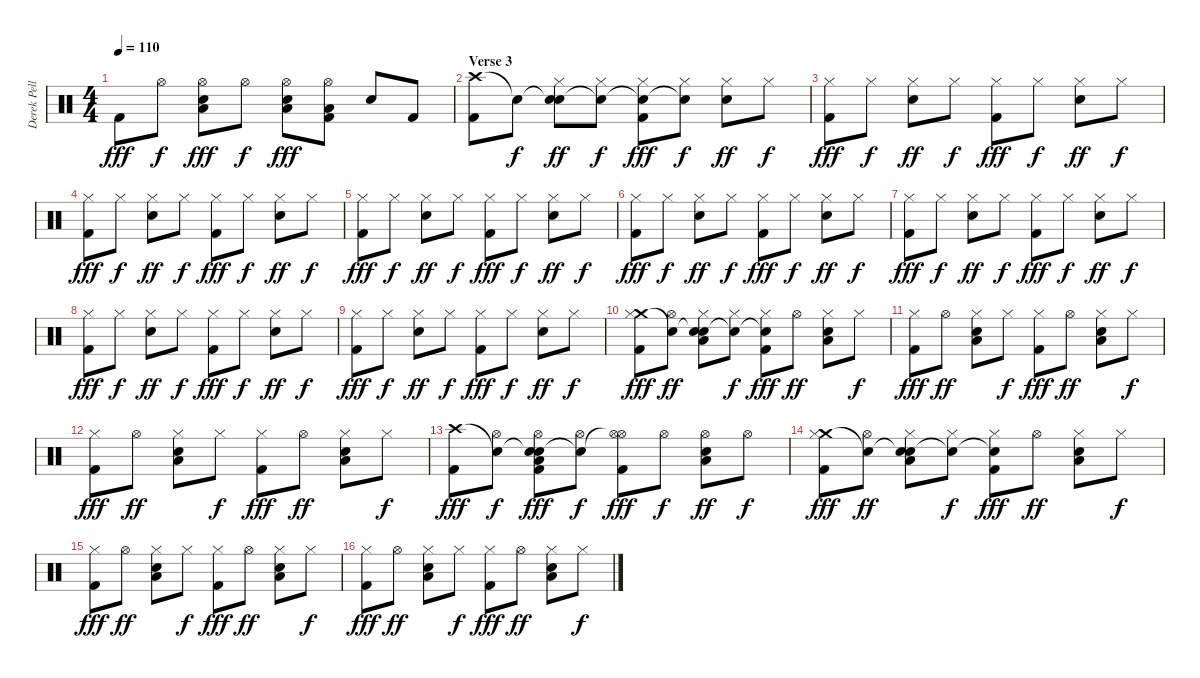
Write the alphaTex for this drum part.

\track ("Derek Pellici" "Derek Pell") {instrument percussion}
\staff {score}
\articulation defaults
\ts (4 4)
\tempo 110
\clef neutral
\ks c "Kick (hit) 2".8{dy fff} "Hi-Hat (open)".8{dy f}
("Hi-Hat (open)" "Low Floor Tom (hit)" "Snare (hit) 2").8{dy fff} "Hi-Hat (open)".8{dy f} ("Hi-Hat (open)" "Low Floor Tom (hit)" "Snare (hit) 2").8{dy fff} ("Hi-Hat (open)" "Low Floor Tom (hit)" "Kick (hit) 2").8 "Snare (hit) 2".8 "Kick (hit) 2".8 |
\section ("" "Verse 3")
("Crash high (hit)" "Kick (hit) 2").8 "Snare (hit)"{t}.8{dy f} ("Snare (hit)"{t} "Hi-Hat (closed)" "Electric Snare (hit)").8{dy ff} ("Snare (hit)"{t} "Hi-Hat (closed)").8{dy f} ("Snare (hit)"{t} "Hi-Hat (closed)" "Kick (hit) 2").8{dy fff} ("Snare (hit)"{t} "Hi-Hat (closed)").8{dy f} ("Hi-Hat (closed)" "Electric Snare (hit)").8{dy ff} "Hi-Hat (closed)".8{dy f} |
("Hi-Hat (closed)" "Kick (hit) 2").8{dy fff} "Hi-Hat (closed)".8{dy f} ("Hi-Hat (closed)" "Electric Snare (hit)").8{dy ff} "Hi-Hat (closed)".8{dy f} ("Hi-Hat (closed)" "Kick (hit) 2").8{dy fff} "Hi-Hat (closed)".8{dy f} ("Hi-Hat (closed)" "Electric Snare (hit)").8{dy ff} "Hi-Hat (closed)".8{dy f} |
("Hi-Hat (closed)" "Kick (hit) 2").8{dy fff} "Hi-Hat (closed)".8{dy f} ("Hi-Hat (closed)" "Electric Snare (hit)").8{dy ff} "Hi-Hat (closed)".8{dy f} ("Hi-Hat (closed)" "Kick (hit) 2").8{dy fff} "Hi-Hat (closed)".8{dy f} ("Hi-Hat (closed)" "Electric Snare (hit)").8{dy ff} "Hi-Hat (closed)".8{dy f} |
("Hi-Hat (closed)" "Kick (hit) 2").8{dy fff} "Hi-Hat (closed)".8{dy f} ("Hi-Hat (closed)" "Electric Snare (hit)").8{dy ff} "Hi-Hat (closed)".8{dy f} ("Hi-Hat (closed)" "Kick (hit) 2").8{dy fff} "Hi-Hat (closed)".8{dy f} ("Hi-Hat (closed)" "Electric Snare (hit)").8{dy ff} "Hi-Hat (closed)".8{dy f} |
("Hi-Hat (closed)" "Kick (hit) 2").8{dy fff} "Hi-Hat (closed)".8{dy f} ("Hi-Hat (closed)" "Electric Snare (hit)").8{dy ff} "Hi-Hat (closed)".8{dy f} ("Hi-Hat (closed)" "Kick (hit) 2").8{dy fff} "Hi-Hat (closed)".8{dy f} ("Hi-Hat (closed)" "Electric Snare (hit)").8{dy ff} "Hi-Hat (closed)".8{dy f} |
("Hi-Hat (closed)" "Kick (hit) 2").8{dy fff} "Hi-Hat (closed)".8{dy f} ("Hi-Hat (closed)" "Electric Snare (hit)").8{dy ff} "Hi-Hat (closed)".8{dy f} ("Hi-Hat (closed)" "Kick (hit) 2").8{dy fff} "Hi-Hat (closed)".8{dy f} ("Hi-Hat (closed)" "Electric Snare (hit)").8{dy ff} "Hi-Hat (closed)".8{dy f} |
("Hi-Hat (closed)" "Kick (hit) 2").8{dy fff} "Hi-Hat (closed)".8{dy f} ("Hi-Hat (closed)" "Electric Snare (hit)").8{dy ff} "Hi-Hat (closed)".8{dy f} ("Hi-Hat (closed)" "Kick (hit) 2").8{dy fff} "Hi-Hat (closed)".8{dy f} ("Hi-Hat (closed)" "Electric Snare (hit)").8{dy ff} "Hi-Hat (closed)".8{dy f} |
("Hi-Hat (closed)" "Kick (hit) 2").8{dy fff} "Hi-Hat (closed)".8{dy f} ("Hi-Hat (closed)" "Electric Snare (hit)").8{dy ff} "Hi-Hat (closed)".8{dy f} ("Hi-Hat (closed)" "Kick (hit) 2").8{dy fff} "Hi-Hat (closed)".8{dy f} ("Hi-Hat (closed)" "Electric Snare (hit)").8{dy ff} "Hi-Hat (closed)".8{dy f} |
("Crash medium (hit)" "Hi-Hat (closed)" "Kick (hit) 2").8{dy fff} ("Snare (hit)"{t} "Hi-Hat (open)").8{dy ff} ("Snare (hit)"{t} "Hi-Hat (closed)" "Low Floor Tom (hit)" "Snare (hit) 2").8 ("Snare (hit)"{t} "Hi-Hat (closed)").8{dy f} ("Snare (hit)"{t} "Hi-Hat (closed)" "Kick (hit) 2").8{dy fff} "Hi-Hat (open)".8{dy ff} ("Hi-Hat (closed)" "Low Floor Tom (hit)" "Snare (hit) 2").8 "Hi-Hat (closed)".8{dy f} |
("Hi-Hat (closed)" "Kick (hit) 2").8{dy fff} "Hi-Hat (open)".8{dy ff} ("Hi-Hat (closed)" "Low Floor Tom (hit)" "Snare (hit) 2").8 "Hi-Hat (closed)".8{dy f} ("Hi-Hat (closed)" "Kick (hit) 2").8{dy fff} "Hi-Hat (open)".8{dy ff} ("Hi-Hat (closed)" "Low Floor Tom (hit)" "Snare (hit) 2").8 "Hi-Hat (closed)".8{dy f} |
("Hi-Hat (closed)" "Kick (hit) 2").8{dy fff} "Hi-Hat (open)".8{dy ff} ("Hi-Hat (closed)" "Low Floor Tom (hit)" "Snare (hit) 2").8 "Hi-Hat (closed)".8{dy f} ("Hi-Hat (closed)" "Kick (hit) 2").8{dy fff} "Hi-Hat (open)".8{dy ff} ("Hi-Hat (closed)" "Low Floor Tom (hit)" "Snare (hit) 2").8 "Hi-Hat (closed)".8{dy f} |
("Crash high (hit)" "Kick (hit) 2").8{dy fff} ("Snare (hit)"{t} "Hi-Hat (open)").8{dy f} ("Snare (hit) 2"{t} "Hi-Hat (open)" "Low Floor Tom (hit)" "Snare (hit) 2" "Kick (hit) 2").8{dy fff} ("Snare (hit)"{t} "Hi-Hat (open)").8{dy f} ("Hi-Hat (open)"{t} "Hi-Hat (open)" "Kick (hit) 2").8{dy fff} "Hi-Hat (open)".8{dy f} ("Hi-Hat (open)" "Low Floor Tom (hit)" "Snare (hit) 2").8{dy ff} "Hi-Hat (open)".8{dy f} |
("Crash medium (hit)" "Hi-Hat (closed)" "Kick (hit) 2").8{dy fff} ("Snare (hit)"{t} "Hi-Hat (open)").8{dy ff} ("Snare (hit)"{t} "Hi-Hat (closed)" "Low Floor Tom (hit)" "Snare (hit) 2").8 ("Snare (hit)"{t} "Hi-Hat (closed)").8{dy f} ("Snare (hit)"{t} "Hi-Hat (closed)" "Kick (hit) 2").8{dy fff} "Hi-Hat (open)".8{dy ff} ("Hi-Hat (closed)" "Low Floor Tom (hit)" "Snare (hit) 2").8 "Hi-Hat (closed)".8{dy f} |
("Hi-Hat (closed)" "Kick (hit) 2").8{dy fff} "Hi-Hat (open)".8{dy ff} ("Hi-Hat (closed)" "Low Floor Tom (hit)" "Snare (hit) 2").8 "Hi-Hat (closed)".8{dy f} ("Hi-Hat (closed)" "Kick (hit) 2").8{dy fff} "Hi-Hat (open)".8{dy ff} ("Hi-Hat (closed)" "Low Floor Tom (hit)" "Snare (hit) 2").8 "Hi-Hat (closed)".8{dy f} |
("Hi-Hat (closed)" "Kick (hit) 2").8{dy fff} "Hi-Hat (open)".8{dy ff} ("Hi-Hat (closed)" "Low Floor Tom (hit)" "Snare (hit) 2").8 "Hi-Hat (closed)".8{dy f} ("Hi-Hat (closed)" "Kick (hit) 2").8{dy fff} "Hi-Hat (open)".8{dy ff} ("Hi-Hat (closed)" "Low Floor Tom (hit)" "Snare (hit) 2").8 "Hi-Hat (closed)".8{dy f}
